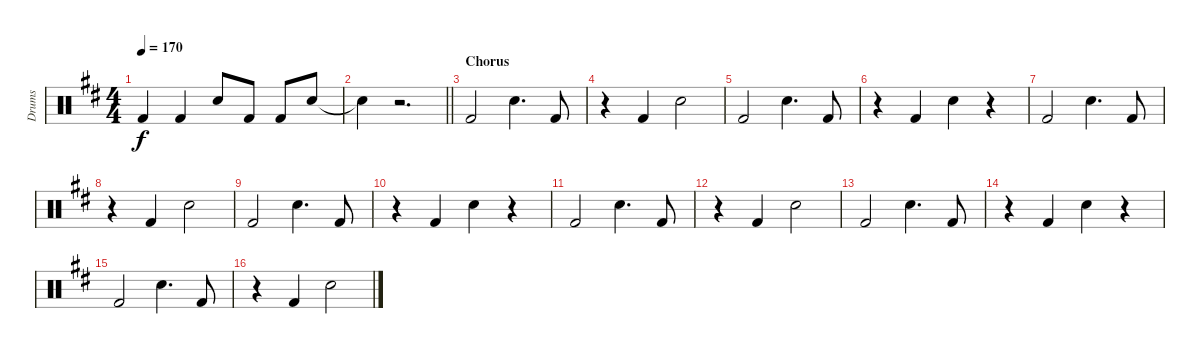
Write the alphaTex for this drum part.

\track ("Drums" "Drums") {instrument percussion}
\staff {score}
\articulation defaults
\ts (4 4)
\tempo 170
\clef neutral
\ks d "Kick (hit) 2".4{dy f} "Kick (hit) 2".4 "Electric Snare (hit)".8 "Kick (hit) 2".8 "Kick (hit) 2".8 "Electric Snare (hit)".8
|
\barLineRight lightlight "Electric Snare (hit)"{t}.4
r.2{d} |
\section ("" "Chorus")
"Kick (hit) 2".2 "Electric Snare (hit)".4{d} "Kick (hit) 2".8 |
r.4 "Kick (hit) 2".4 "Electric Snare (hit)".2 |
"Kick (hit) 2".2 "Electric Snare (hit)".4{d} "Kick (hit) 2".8 |
r.4 "Kick (hit) 2".4 "Electric Snare (hit)".4 r.4 |
"Kick (hit) 2".2 "Electric Snare (hit)".4{d} "Kick (hit) 2".8 |
r.4 "Kick (hit) 2".4 "Electric Snare (hit)".2 |
"Kick (hit) 2".2 "Electric Snare (hit)".4{d} "Kick (hit) 2".8 |
r.4 "Kick (hit) 2".4 "Electric Snare (hit)".4 r.4 |
"Kick (hit) 2".2 "Electric Snare (hit)".4{d} "Kick (hit) 2".8 |
r.4 "Kick (hit) 2".4 "Electric Snare (hit)".2 |
"Kick (hit) 2".2 "Electric Snare (hit)".4{d} "Kick (hit) 2".8 |
r.4 "Kick (hit) 2".4 "Electric Snare (hit)".4 r.4 |
"Kick (hit) 2".2 "Electric Snare (hit)".4{d} "Kick (hit) 2".8 |
r.4 "Kick (hit) 2".4 "Electric Snare (hit)".2
